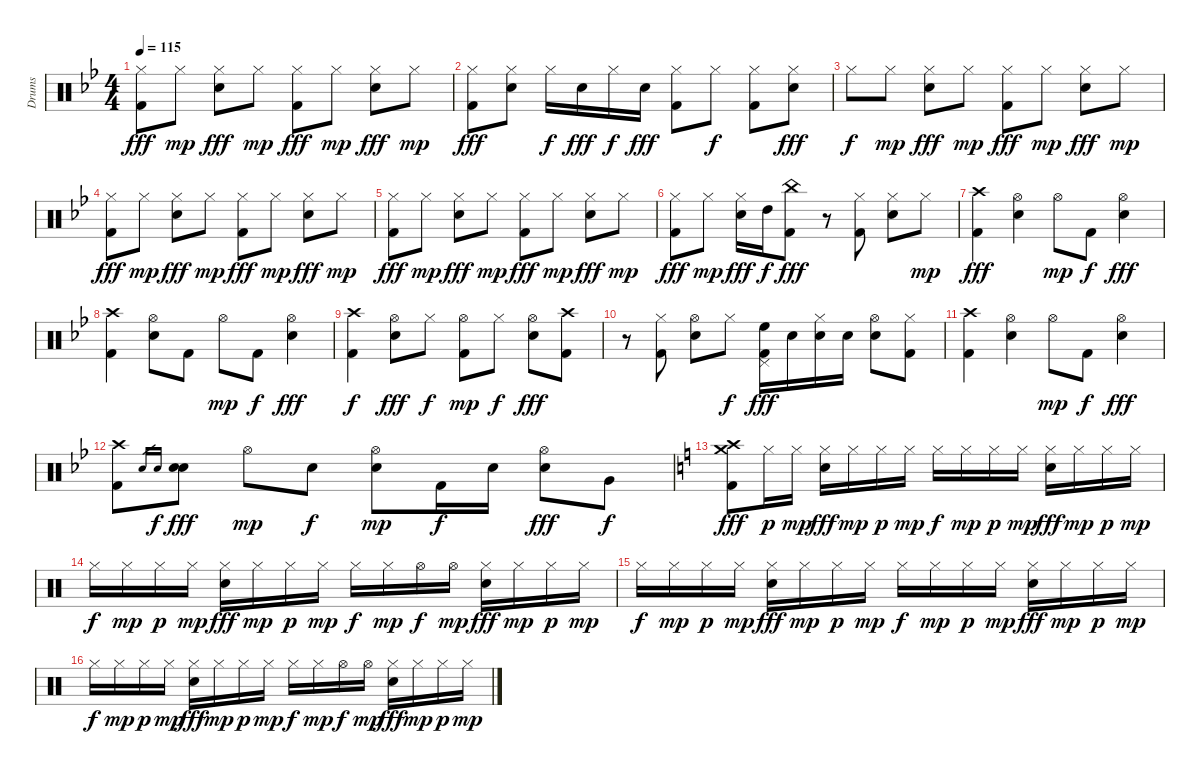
\track ("Drums" "Drums") {instrument percussion}
\staff {score}
\articulation defaults
\ts (4 4)
\tempo 115
\clef neutral
\ks bb
("Hi-Hat (closed)" "Kick (hit) 2").8{dy fff} "Hi-Hat (closed)".8{dy mp} ("Hi-Hat (closed)" "Electric Snare (hit)").8{dy fff} "Hi-Hat (closed)".8{dy mp} ("Hi-Hat (closed)" "Kick (hit) 2").8{dy fff} "Hi-Hat (closed)".8{dy mp} ("Hi-Hat (closed)" "Electric Snare (hit)").8{dy fff} "Hi-Hat (closed)".8{dy mp} |
("Hi-Hat (closed)" "Kick (hit) 2").8{dy fff} ("Hi-Hat (closed)" "Electric Snare (hit)").8 "Hi-Hat (closed)".16{dy f} "Electric Snare (hit)".16{dy fff} "Hi-Hat (closed)".16{dy f} "Electric Snare (hit)".16{dy fff} ("Hi-Hat (closed)" "Kick (hit) 2").8 "Hi-Hat (closed)".8{dy f} ("Hi-Hat (closed)" "Kick (hit) 2").8 ("Hi-Hat (closed)" "Electric Snare (hit)").8{dy fff} |
"Hi-Hat (closed)".8{dy f} "Hi-Hat (closed)".8{dy mp} ("Hi-Hat (closed)" "Electric Snare (hit)").8{dy fff} "Hi-Hat (closed)".8{dy mp} ("Hi-Hat (closed)" "Kick (hit) 2").8{dy fff} "Hi-Hat (closed)".8{dy mp} ("Hi-Hat (closed)" "Electric Snare (hit)").8{dy fff} "Hi-Hat (closed)".8{dy mp} |
("Hi-Hat (closed)" "Kick (hit) 2").8{dy fff} "Hi-Hat (closed)".8{dy mp} ("Hi-Hat (closed)" "Electric Snare (hit)").8{dy fff} "Hi-Hat (closed)".8{dy mp} ("Hi-Hat (closed)" "Kick (hit) 2").8{dy fff} "Hi-Hat (closed)".8{dy mp} ("Hi-Hat (closed)" "Electric Snare (hit)").8{dy fff} "Hi-Hat (closed)".8{dy mp} |
("Hi-Hat (closed)" "Kick (hit) 2").8{dy fff} "Hi-Hat (closed)".8{dy mp} ("Hi-Hat (closed)" "Electric Snare (hit)").8{dy fff} "Hi-Hat (closed)".8{dy mp} ("Hi-Hat (closed)" "Kick (hit) 2").8{dy fff} "Hi-Hat (closed)".8{dy mp} ("Hi-Hat (closed)" "Electric Snare (hit)").8{dy fff} "Hi-Hat (closed)".8{dy mp} |
("Hi-Hat (closed)" "Kick (hit) 2").8{dy fff} "Hi-Hat (closed)".8{dy mp} ("Hi-Hat (closed)" "Electric Snare (hit)").16{dy fff} "High Tom (hit)".16{dy f} ("China (hit)" "Kick (hit) 2").8{dy fff} r.8 ("Hi-Hat (closed)" "Kick (hit) 2").8 ("Hi-Hat (closed)" "Electric Snare (hit)").8 "Hi-Hat (closed)".8{dy mp} |
("Crash high (hit)" "Kick (hit) 2").4{dy fff} ("Hi-Hat (open)" "Electric Snare (hit)").4 "Hi-Hat (open)".8{dy mp} "Kick (hit) 2".8{dy f} ("Hi-Hat (open)" "Electric Snare (hit)").4{dy fff} |
("Crash high (hit)" "Kick (hit) 2").4 ("Hi-Hat (open)" "Electric Snare (hit)").8 "Kick (hit) 2".8 "Hi-Hat (open)".8{dy mp} "Kick (hit) 2".8{dy f} ("Hi-Hat (open)" "Electric Snare (hit)").4{dy fff} |
("Crash high (hit)" "Kick (hit) 2").4{dy f} ("Hi-Hat (open)" "Electric Snare (hit)").8{dy fff} "Hi-Hat (closed)".8{dy f} ("Hi-Hat (open)" "Kick (hit) 2").8{dy mp} "Hi-Hat (closed)".8{dy f} ("Hi-Hat (open)" "Electric Snare (hit)").8{dy fff} ("Crash high (hit)" "Kick (hit) 2").8 |
r.8 ("Hi-Hat (closed)" "Kick (hit) 2").8 ("Hi-Hat (open)" "Electric Snare (hit)").8 "Hi-Hat (closed)".8{dy f} ("Pedal Hi-Hat (hit)" "High Floor Tom (hit)" "Kick (hit) 2").16{dy fff} "Electric Snare (hit)".16 ("Hi-Hat (closed)" "Electric Snare (hit)").16 "Electric Snare (hit)".16 ("Hi-Hat (open)" "Electric Snare (hit)").8 ("Hi-Hat (closed)" "Kick (hit) 2").8 |
("Crash high (hit)" "Kick (hit) 2").4 ("Hi-Hat (open)" "Electric Snare (hit)").4 "Hi-Hat (open)".8{dy mp} "Kick (hit) 2".8{dy f} ("Hi-Hat (open)" "Electric Snare (hit)").4{dy fff} |
("Crash high (hit)" "Kick (hit) 2").8 "Electric Snare (hit)".16{gr} "Electric Snare (hit)".16{gr dy f} ("Electric Snare (hit)" "Electric Snare (hit)").8{dy fff} "Hi-Hat (open)".8{dy mp} "Electric Snare (hit)".8{dy f} ("Hi-Hat (open)" "Electric Snare (hit)").8{dy mp} "Kick (hit) 2".16{dy f} "Electric Snare (hit)".16 ("Hi-Hat (open)" "Electric Snare (hit)").8{dy fff} "Very Low Tom (hit)".8{dy f} |
\ks c
("Crash medium (hit)" "Crash high (hit)" "Kick (hit) 2").8{dy fff} "Hi-Hat (closed)".16{dy p} "Hi-Hat (closed)".16{dy mp} ("Hi-Hat (closed)" "Electric Snare (hit)").16{dy fff} "Hi-Hat (closed)".16{dy mp} "Hi-Hat (closed)".16{dy p} "Hi-Hat (closed)".16{dy mp} "Hi-Hat (closed)".16{dy f} "Hi-Hat (closed)".16{dy mp} "Hi-Hat (closed)".16{dy p} "Hi-Hat (closed)".16{dy mp} ("Hi-Hat (closed)" "Electric Snare (hit)").16{dy fff} "Hi-Hat (closed)".16{dy mp} "Hi-Hat (closed)".16{dy p} "Hi-Hat (closed)".16{dy mp} |
"Hi-Hat (closed)".16{dy f} "Hi-Hat (closed)".16{dy mp} "Hi-Hat (closed)".16{dy p} "Hi-Hat (closed)".16{dy mp} ("Hi-Hat (closed)" "Electric Snare (hit)").16{dy fff} "Hi-Hat (closed)".16{dy mp} "Hi-Hat (closed)".16{dy p} "Hi-Hat (closed)".16{dy mp} "Hi-Hat (closed)".16{dy f} "Hi-Hat (closed)".16{dy mp} "Hi-Hat (open)".16{dy f} "Hi-Hat (open)".16{dy mp} ("Hi-Hat (closed)" "Electric Snare (hit)").16{dy fff} "Hi-Hat (closed)".16{dy mp} "Hi-Hat (closed)".16{dy p} "Hi-Hat (closed)".16{dy mp} |
"Hi-Hat (closed)".16{dy f} "Hi-Hat (closed)".16{dy mp} "Hi-Hat (closed)".16{dy p} "Hi-Hat (closed)".16{dy mp} ("Hi-Hat (closed)" "Electric Snare (hit)").16{dy fff} "Hi-Hat (closed)".16{dy mp} "Hi-Hat (closed)".16{dy p} "Hi-Hat (closed)".16{dy mp} "Hi-Hat (closed)".16{dy f} "Hi-Hat (closed)".16{dy mp} "Hi-Hat (closed)".16{dy p} "Hi-Hat (closed)".16{dy mp} ("Hi-Hat (closed)" "Electric Snare (hit)").16{dy fff} "Hi-Hat (closed)".16{dy mp} "Hi-Hat (closed)".16{dy p} "Hi-Hat (closed)".16{dy mp} |
"Hi-Hat (closed)".16{dy f} "Hi-Hat (closed)".16{dy mp} "Hi-Hat (closed)".16{dy p} "Hi-Hat (closed)".16{dy mp} ("Hi-Hat (closed)" "Electric Snare (hit)").16{dy fff} "Hi-Hat (closed)".16{dy mp} "Hi-Hat (closed)".16{dy p} "Hi-Hat (closed)".16{dy mp} "Hi-Hat (closed)".16{dy f} "Hi-Hat (closed)".16{dy mp} "Hi-Hat (open)".16{dy f} "Hi-Hat (open)".16{dy mp} ("Hi-Hat (closed)" "Electric Snare (hit)").16{dy fff} "Hi-Hat (closed)".16{dy mp} "Hi-Hat (closed)".16{dy p} "Hi-Hat (closed)".16{dy mp}
